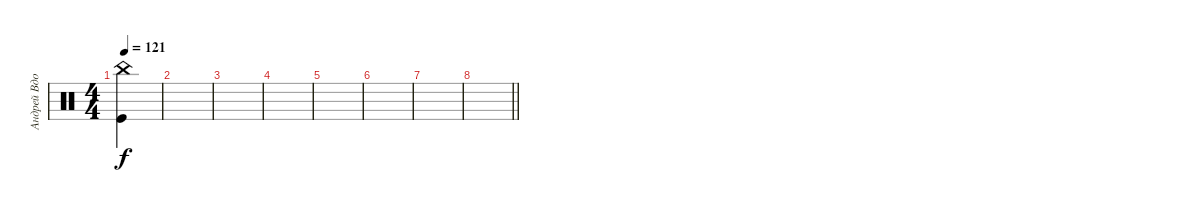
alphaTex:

\track ("Андрей Вдовиченко" "Андрей Вдо") {instrument percussion}
\staff {score}
\articulation defaults
\ts (4 4)
\section ("" "")
\tempo 121
\clef neutral
\ks c
("China (hit)" "Kick (hit)").4{dy f} |
|
|
|
|
|
|
\barLineRight lightlight
